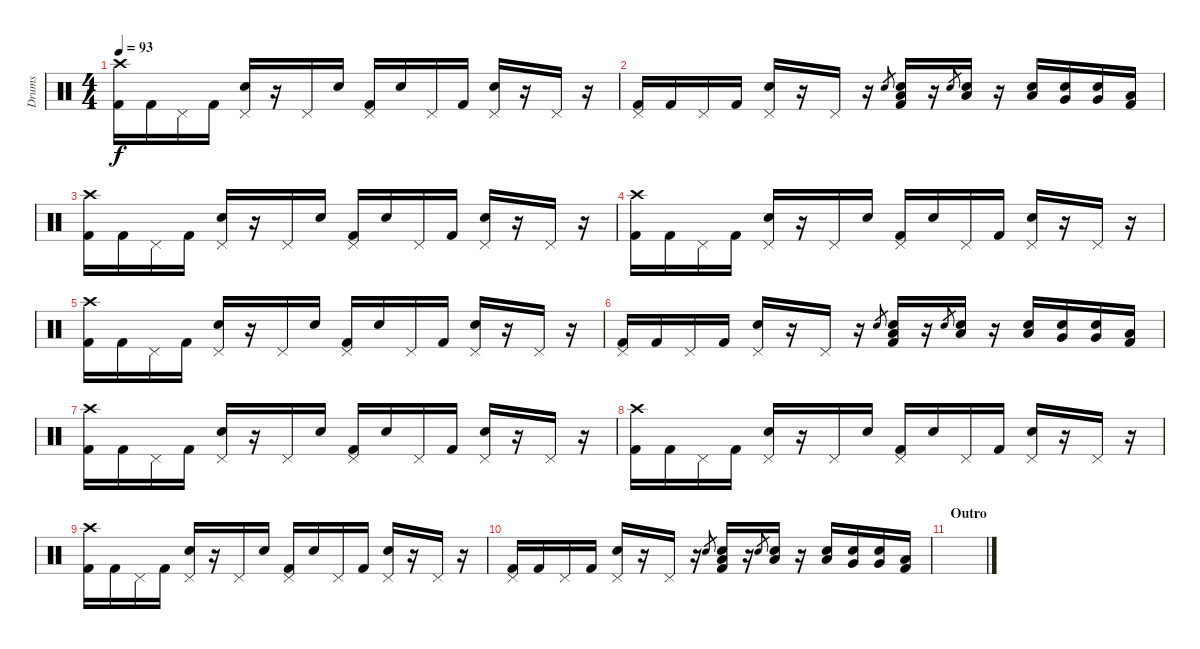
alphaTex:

\track ("Drums" "Drums") {instrument percussion}
\staff {score}
\articulation defaults
\ts (4 4)
\tempo 93
\clef neutral
\ks c
("Crash high (hit)" "Kick (hit) 2").16{dy f} "Kick (hit) 2".16 "Pedal Hi-Hat (hit)".16 "Kick (hit) 2".16 ("Pedal Hi-Hat (hit)" "Electric Snare (hit)").16 r.16 "Pedal Hi-Hat (hit)".16 "Electric Snare (hit)".16 ("Pedal Hi-Hat (hit)" "Kick (hit) 2").16 "Electric Snare (hit)".16 "Pedal Hi-Hat (hit)".16 "Kick (hit) 2".16 ("Pedal Hi-Hat (hit)" "Electric Snare (hit)").16 r.16 "Pedal Hi-Hat (hit)".16 r.16 |
("Pedal Hi-Hat (hit)" "Kick (hit) 2").16 "Kick (hit) 2".16 "Pedal Hi-Hat (hit)".16 "Kick (hit) 2".16 ("Pedal Hi-Hat (hit)" "Electric Snare (hit)").16 r.16 "Pedal Hi-Hat (hit)".16 r.16 "Electric Snare (hit)".8{gr} ("Electric Snare (hit)" "Low Tom (hit)" "Kick (hit) 2").16 r.16 "Electric Snare (hit)".8{gr} ("Electric Snare (hit)" "Low Tom (hit)").16 r.16 ("Electric Snare (hit)" "Low Tom (hit)").16 ("Electric Snare (hit)" "Very Low Tom (hit)").16 ("Electric Snare (hit)" "Very Low Tom (hit)").16 ("Low Floor Tom (hit)" "Kick (hit) 2").16 |
("Crash high (hit)" "Kick (hit) 2").16 "Kick (hit) 2".16 "Pedal Hi-Hat (hit)".16 "Kick (hit) 2".16 ("Pedal Hi-Hat (hit)" "Electric Snare (hit)").16 r.16 "Pedal Hi-Hat (hit)".16 "Electric Snare (hit)".16 ("Pedal Hi-Hat (hit)" "Kick (hit) 2").16 "Electric Snare (hit)".16 "Pedal Hi-Hat (hit)".16 "Kick (hit) 2".16 ("Pedal Hi-Hat (hit)" "Electric Snare (hit)").16 r.16 "Pedal Hi-Hat (hit)".16 r.16 |
("Crash high (hit)" "Kick (hit) 2").16 "Kick (hit) 2".16 "Pedal Hi-Hat (hit)".16 "Kick (hit) 2".16 ("Pedal Hi-Hat (hit)" "Electric Snare (hit)").16 r.16 "Pedal Hi-Hat (hit)".16 "Electric Snare (hit)".16 ("Pedal Hi-Hat (hit)" "Kick (hit) 2").16 "Electric Snare (hit)".16 "Pedal Hi-Hat (hit)".16 "Kick (hit) 2".16 ("Pedal Hi-Hat (hit)" "Electric Snare (hit)").16 r.16 "Pedal Hi-Hat (hit)".16 r.16 |
("Crash high (hit)" "Kick (hit) 2").16 "Kick (hit) 2".16 "Pedal Hi-Hat (hit)".16 "Kick (hit) 2".16 ("Pedal Hi-Hat (hit)" "Electric Snare (hit)").16 r.16 "Pedal Hi-Hat (hit)".16 "Electric Snare (hit)".16 ("Pedal Hi-Hat (hit)" "Kick (hit) 2").16 "Electric Snare (hit)".16 "Pedal Hi-Hat (hit)".16 "Kick (hit) 2".16 ("Pedal Hi-Hat (hit)" "Electric Snare (hit)").16 r.16 "Pedal Hi-Hat (hit)".16 r.16 |
("Pedal Hi-Hat (hit)" "Kick (hit) 2").16 "Kick (hit) 2".16 "Pedal Hi-Hat (hit)".16 "Kick (hit) 2".16 ("Pedal Hi-Hat (hit)" "Electric Snare (hit)").16 r.16 "Pedal Hi-Hat (hit)".16 r.16 "Electric Snare (hit)".8{gr} ("Electric Snare (hit)" "Low Tom (hit)" "Kick (hit) 2").16 r.16 "Electric Snare (hit)".8{gr} ("Electric Snare (hit)" "Low Tom (hit)").16 r.16 ("Electric Snare (hit)" "Low Tom (hit)").16 ("Electric Snare (hit)" "Very Low Tom (hit)").16 ("Electric Snare (hit)" "Very Low Tom (hit)").16 ("Low Floor Tom (hit)" "Kick (hit) 2").16 |
("Crash high (hit)" "Kick (hit) 2").16 "Kick (hit) 2".16 "Pedal Hi-Hat (hit)".16 "Kick (hit) 2".16 ("Pedal Hi-Hat (hit)" "Electric Snare (hit)").16 r.16 "Pedal Hi-Hat (hit)".16 "Electric Snare (hit)".16 ("Pedal Hi-Hat (hit)" "Kick (hit) 2").16 "Electric Snare (hit)".16 "Pedal Hi-Hat (hit)".16 "Kick (hit) 2".16 ("Pedal Hi-Hat (hit)" "Electric Snare (hit)").16 r.16 "Pedal Hi-Hat (hit)".16 r.16 |
("Crash high (hit)" "Kick (hit) 2").16 "Kick (hit) 2".16 "Pedal Hi-Hat (hit)".16 "Kick (hit) 2".16 ("Pedal Hi-Hat (hit)" "Electric Snare (hit)").16 r.16 "Pedal Hi-Hat (hit)".16 "Electric Snare (hit)".16 ("Pedal Hi-Hat (hit)" "Kick (hit) 2").16 "Electric Snare (hit)".16 "Pedal Hi-Hat (hit)".16 "Kick (hit) 2".16 ("Pedal Hi-Hat (hit)" "Electric Snare (hit)").16 r.16 "Pedal Hi-Hat (hit)".16 r.16 |
("Crash high (hit)" "Kick (hit) 2").16 "Kick (hit) 2".16 "Pedal Hi-Hat (hit)".16 "Kick (hit) 2".16 ("Pedal Hi-Hat (hit)" "Electric Snare (hit)").16 r.16 "Pedal Hi-Hat (hit)".16 "Electric Snare (hit)".16 ("Pedal Hi-Hat (hit)" "Kick (hit) 2").16 "Electric Snare (hit)".16 "Pedal Hi-Hat (hit)".16 "Kick (hit) 2".16 ("Pedal Hi-Hat (hit)" "Electric Snare (hit)").16 r.16 "Pedal Hi-Hat (hit)".16 r.16 |
("Pedal Hi-Hat (hit)" "Kick (hit) 2").16 "Kick (hit) 2".16 "Pedal Hi-Hat (hit)".16 "Kick (hit) 2".16 ("Pedal Hi-Hat (hit)" "Electric Snare (hit)").16 r.16 "Pedal Hi-Hat (hit)".16 r.16 "Electric Snare (hit)".8{gr} ("Electric Snare (hit)" "Low Tom (hit)" "Kick (hit) 2").16 r.16 "Electric Snare (hit)".8{gr} ("Electric Snare (hit)" "Low Tom (hit)").16 r.16 ("Electric Snare (hit)" "Low Tom (hit)").16 ("Electric Snare (hit)" "Very Low Tom (hit)").16 ("Electric Snare (hit)" "Very Low Tom (hit)").16 ("Low Floor Tom (hit)" "Kick (hit) 2").16 |
\section ("" "Outro")
